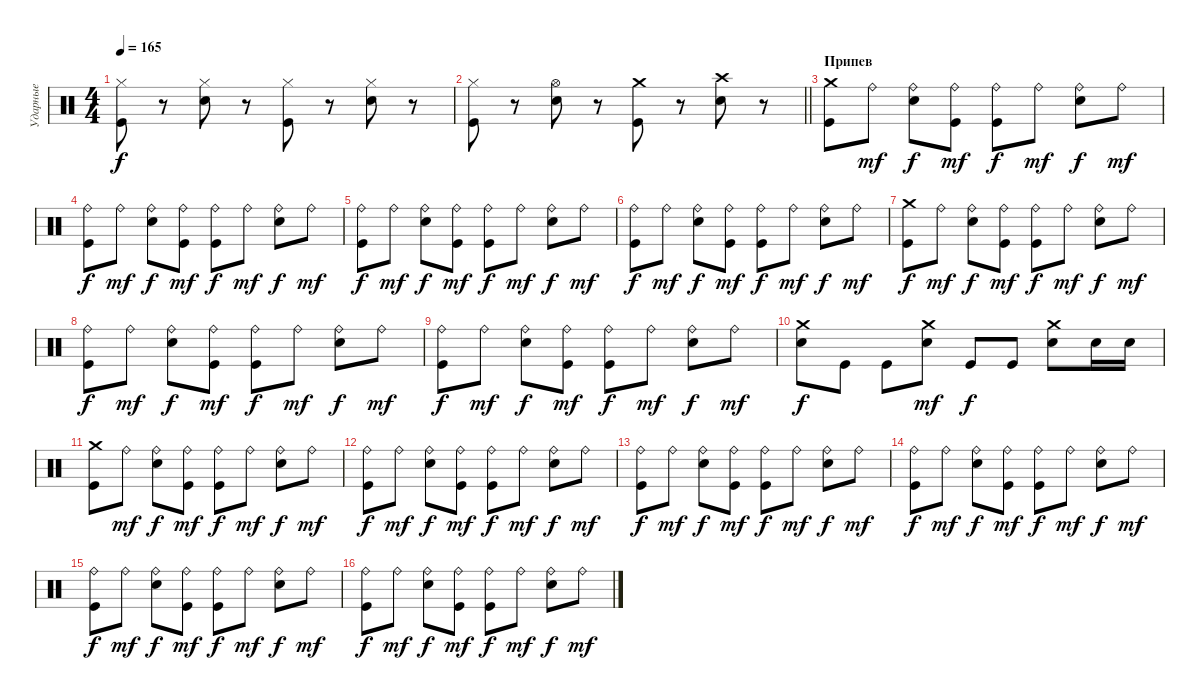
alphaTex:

\track ("Ударные" "Ударные") {instrument percussion}
\staff {score}
\articulation defaults
\ts (4 4)
\tempo 165
\clef neutral
\ks c
("Hi-Hat (closed)" "Kick (hit)").8{dy f} r.8 ("Hi-Hat (closed)" "Electric Snare (hit)").8 r.8 ("Hi-Hat (closed)" "Kick (hit)").8 r.8 ("Hi-Hat (closed)" "Electric Snare (hit)").8 r.8 |
\barLineRight lightlight
("Hi-Hat (closed)" "Kick (hit)").8 r.8 ("Hi-Hat (open)" "Electric Snare (hit)").8 r.8 ("Crash medium (hit)" "Kick (hit)").8 r.8 ("Crash high (hit)" "Electric Snare (hit)").8 r.8 |
\section ("" "Припев")
("Crash medium (hit)" "Kick (hit)").8 "Ride (bell)".8{dy mf} ("Ride (bell)" "Electric Snare (hit)").8{dy f} ("Ride (bell)" "Kick (hit)").8{dy mf} ("Ride (bell)" "Kick (hit)").8{dy f} "Ride (bell)".8{dy mf} ("Ride (bell)" "Electric Snare (hit)").8{dy f} "Ride (bell)".8{dy mf} |
("Ride (bell)" "Kick (hit)").8{dy f} "Ride (bell)".8{dy mf} ("Ride (bell)" "Electric Snare (hit)").8{dy f} ("Ride (bell)" "Kick (hit)").8{dy mf} ("Ride (bell)" "Kick (hit)").8{dy f} "Ride (bell)".8{dy mf} ("Ride (bell)" "Electric Snare (hit)").8{dy f} "Ride (bell)".8{dy mf} |
("Ride (bell)" "Kick (hit)").8{dy f} "Ride (bell)".8{dy mf} ("Ride (bell)" "Electric Snare (hit)").8{dy f} ("Ride (bell)" "Kick (hit)").8{dy mf} ("Ride (bell)" "Kick (hit)").8{dy f} "Ride (bell)".8{dy mf} ("Ride (bell)" "Electric Snare (hit)").8{dy f} "Ride (bell)".8{dy mf} |
("Ride (bell)" "Kick (hit)").8{dy f} "Ride (bell)".8{dy mf} ("Ride (bell)" "Electric Snare (hit)").8{dy f} ("Ride (bell)" "Kick (hit)").8{dy mf} ("Ride (bell)" "Kick (hit)").8{dy f} "Ride (bell)".8{dy mf} ("Ride (bell)" "Electric Snare (hit)").8{dy f} "Ride (bell)".8{dy mf} |
("Crash medium (hit)" "Kick (hit)").8{dy f} "Ride (bell)".8{dy mf} ("Ride (bell)" "Electric Snare (hit)").8{dy f} ("Ride (bell)" "Kick (hit)").8{dy mf} ("Ride (bell)" "Kick (hit)").8{dy f} "Ride (bell)".8{dy mf} ("Ride (bell)" "Electric Snare (hit)").8{dy f} "Ride (bell)".8{dy mf} |
("Ride (bell)" "Kick (hit)").8{dy f} "Ride (bell)".8{dy mf} ("Ride (bell)" "Electric Snare (hit)").8{dy f} ("Ride (bell)" "Kick (hit)").8{dy mf} ("Ride (bell)" "Kick (hit)").8{dy f} "Ride (bell)".8{dy mf} ("Ride (bell)" "Electric Snare (hit)").8{dy f} "Ride (bell)".8{dy mf} |
("Ride (bell)" "Kick (hit)").8{dy f} "Ride (bell)".8{dy mf} ("Ride (bell)" "Electric Snare (hit)").8{dy f} ("Ride (bell)" "Kick (hit)").8{dy mf} ("Ride (bell)" "Kick (hit)").8{dy f} "Ride (bell)".8{dy mf} ("Ride (bell)" "Electric Snare (hit)").8{dy f} "Ride (bell)".8{dy mf} |
("Crash medium (hit)" "Electric Snare (hit)").8{dy f} "Kick (hit)".8 "Kick (hit)".8 ("Crash medium (hit)" "Electric Snare (hit)").8{dy mf} "Kick (hit)".8{dy f} "Kick (hit)".8 ("Crash medium (hit)" "Electric Snare (hit)").8 "Electric Snare (hit)".16 "Electric Snare (hit)".16 |
("Crash medium (hit)" "Kick (hit)").8 "Ride (bell)".8{dy mf} ("Ride (bell)" "Electric Snare (hit)").8{dy f} ("Ride (bell)" "Kick (hit)").8{dy mf} ("Ride (bell)" "Kick (hit)").8{dy f} "Ride (bell)".8{dy mf} ("Ride (bell)" "Electric Snare (hit)").8{dy f} "Ride (bell)".8{dy mf} |
("Ride (bell)" "Kick (hit)").8{dy f} "Ride (bell)".8{dy mf} ("Ride (bell)" "Electric Snare (hit)").8{dy f} ("Ride (bell)" "Kick (hit)").8{dy mf} ("Ride (bell)" "Kick (hit)").8{dy f} "Ride (bell)".8{dy mf} ("Ride (bell)" "Electric Snare (hit)").8{dy f} "Ride (bell)".8{dy mf} |
("Ride (bell)" "Kick (hit)").8{dy f} "Ride (bell)".8{dy mf} ("Ride (bell)" "Electric Snare (hit)").8{dy f} ("Ride (bell)" "Kick (hit)").8{dy mf} ("Ride (bell)" "Kick (hit)").8{dy f} "Ride (bell)".8{dy mf} ("Ride (bell)" "Electric Snare (hit)").8{dy f} "Ride (bell)".8{dy mf} |
("Ride (bell)" "Kick (hit)").8{dy f} "Ride (bell)".8{dy mf} ("Ride (bell)" "Electric Snare (hit)").8{dy f} ("Ride (bell)" "Kick (hit)").8{dy mf} ("Ride (bell)" "Kick (hit)").8{dy f} "Ride (bell)".8{dy mf} ("Ride (bell)" "Electric Snare (hit)").8{dy f} "Ride (bell)".8{dy mf} |
("Ride (bell)" "Kick (hit)").8{dy f} "Ride (bell)".8{dy mf} ("Ride (bell)" "Electric Snare (hit)").8{dy f} ("Ride (bell)" "Kick (hit)").8{dy mf} ("Ride (bell)" "Kick (hit)").8{dy f} "Ride (bell)".8{dy mf} ("Ride (bell)" "Electric Snare (hit)").8{dy f} "Ride (bell)".8{dy mf} |
("Ride (bell)" "Kick (hit)").8{dy f} "Ride (bell)".8{dy mf} ("Ride (bell)" "Electric Snare (hit)").8{dy f} ("Ride (bell)" "Kick (hit)").8{dy mf} ("Ride (bell)" "Kick (hit)").8{dy f} "Ride (bell)".8{dy mf} ("Ride (bell)" "Electric Snare (hit)").8{dy f} "Ride (bell)".8{dy mf}
